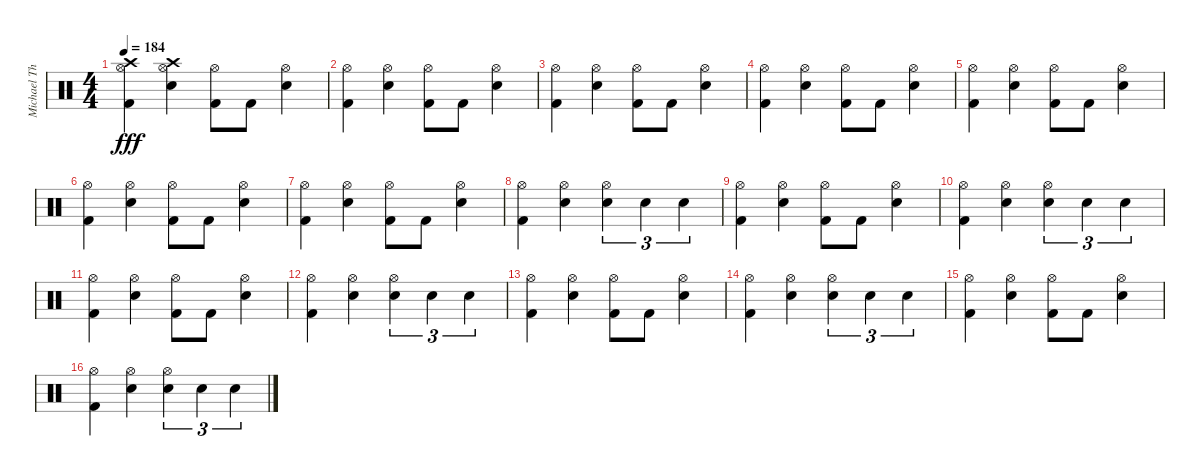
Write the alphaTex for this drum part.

\track ("Michael Thomas - Drums" "Michael Th") {instrument percussion}
\staff {score}
\articulation defaults
\ts (4 4)
\tempo 184
\clef neutral
\ks c
("Crash high (hit)" "Hi-Hat (open)" "Kick (hit) 2").4{dy fff} ("Crash high (hit)" "Hi-Hat (open)" "Snare (hit) 2").4 ("Hi-Hat (open)" "Kick (hit) 2").8 "Kick (hit) 2".8 ("Hi-Hat (open)" "Snare (hit) 2").4 |
("Hi-Hat (open)" "Kick (hit) 2").4 ("Hi-Hat (open)" "Snare (hit) 2").4 ("Hi-Hat (open)" "Kick (hit) 2").8 "Kick (hit) 2".8 ("Hi-Hat (open)" "Snare (hit) 2").4 |
("Hi-Hat (open)" "Kick (hit) 2").4 ("Hi-Hat (open)" "Snare (hit) 2").4 ("Hi-Hat (open)" "Kick (hit) 2").8 "Kick (hit) 2".8 ("Hi-Hat (open)" "Snare (hit) 2").4 |
("Hi-Hat (open)" "Kick (hit) 2").4 ("Hi-Hat (open)" "Snare (hit) 2").4 ("Hi-Hat (open)" "Kick (hit) 2").8 "Kick (hit) 2".8 ("Hi-Hat (open)" "Snare (hit) 2").4 |
("Hi-Hat (open)" "Kick (hit) 2").4 ("Hi-Hat (open)" "Snare (hit) 2").4 ("Hi-Hat (open)" "Kick (hit) 2").8 "Kick (hit) 2".8 ("Hi-Hat (open)" "Snare (hit) 2").4 |
("Hi-Hat (open)" "Kick (hit) 2").4 ("Hi-Hat (open)" "Snare (hit) 2").4 ("Hi-Hat (open)" "Kick (hit) 2").8 "Kick (hit) 2".8 ("Hi-Hat (open)" "Snare (hit) 2").4 |
("Hi-Hat (open)" "Kick (hit) 2").4 ("Hi-Hat (open)" "Snare (hit) 2").4 ("Hi-Hat (open)" "Kick (hit) 2").8 "Kick (hit) 2".8 ("Hi-Hat (open)" "Snare (hit) 2").4 |
("Hi-Hat (open)" "Kick (hit) 2").4 ("Hi-Hat (open)" "Snare (hit) 2").4 ("Hi-Hat (open)" "Snare (hit) 2").4{tu (3 2)} "Snare (hit) 2".4{tu (3 2)} "Snare (hit) 2".4{tu (3 2)} |
("Hi-Hat (open)" "Kick (hit) 2").4 ("Hi-Hat (open)" "Snare (hit) 2").4 ("Hi-Hat (open)" "Kick (hit) 2").8 "Kick (hit) 2".8 ("Hi-Hat (open)" "Snare (hit) 2").4 |
("Hi-Hat (open)" "Kick (hit) 2").4 ("Hi-Hat (open)" "Snare (hit) 2").4 ("Hi-Hat (open)" "Snare (hit) 2").4{tu (3 2)} "Snare (hit) 2".4{tu (3 2)} "Snare (hit) 2".4{tu (3 2)} |
("Hi-Hat (open)" "Kick (hit) 2").4 ("Hi-Hat (open)" "Snare (hit) 2").4 ("Hi-Hat (open)" "Kick (hit) 2").8 "Kick (hit) 2".8 ("Hi-Hat (open)" "Snare (hit) 2").4 |
("Hi-Hat (open)" "Kick (hit) 2").4 ("Hi-Hat (open)" "Snare (hit) 2").4 ("Hi-Hat (open)" "Snare (hit) 2").4{tu (3 2)} "Snare (hit) 2".4{tu (3 2)} "Snare (hit) 2".4{tu (3 2)} |
("Hi-Hat (open)" "Kick (hit) 2").4 ("Hi-Hat (open)" "Snare (hit) 2").4 ("Hi-Hat (open)" "Kick (hit) 2").8 "Kick (hit) 2".8 ("Hi-Hat (open)" "Snare (hit) 2").4 |
("Hi-Hat (open)" "Kick (hit) 2").4 ("Hi-Hat (open)" "Snare (hit) 2").4 ("Hi-Hat (open)" "Snare (hit) 2").4{tu (3 2)} "Snare (hit) 2".4{tu (3 2)} "Snare (hit) 2".4{tu (3 2)} |
("Hi-Hat (open)" "Kick (hit) 2").4 ("Hi-Hat (open)" "Snare (hit) 2").4 ("Hi-Hat (open)" "Kick (hit) 2").8 "Kick (hit) 2".8 ("Hi-Hat (open)" "Snare (hit) 2").4 |
("Hi-Hat (open)" "Kick (hit) 2").4 ("Hi-Hat (open)" "Snare (hit) 2").4 ("Hi-Hat (open)" "Snare (hit) 2").4{tu (3 2)} "Snare (hit) 2".4{tu (3 2)} "Snare (hit) 2".4{tu (3 2)}
